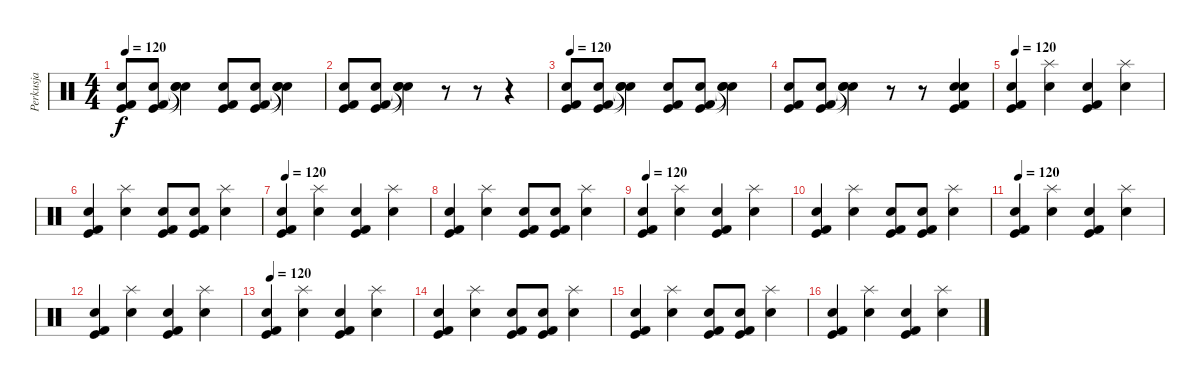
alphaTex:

\track ("Perkusja" "Perkusja") {instrument percussion}
\staff {score}
\articulation defaults
\ts (4 4)
\tempo 120
\clef neutral
\ks c
("Kick (hit)" "Kick (hit) 2" "Snare (hit) 2").8{dy f} ("Kick (hit)" "Kick (hit) 2" "Snare (hit) 2").8 ("Snare (hit)"{t} "Snare (hit)"{t} "Snare (hit)"{t}).4 ("Kick (hit)" "Kick (hit) 2" "Snare (hit) 2").8 ("Kick (hit)" "Kick (hit) 2" "Snare (hit) 2").8 ("Snare (hit)"{t} "Snare (hit)"{t} "Snare (hit)"{t}).4 |
("Kick (hit)" "Kick (hit) 2" "Snare (hit) 2").8 ("Kick (hit)" "Kick (hit) 2" "Snare (hit) 2").8 ("Snare (hit)"{t} "Snare (hit)"{t} "Snare (hit)"{t}).4 r.8 r.8 r.4 |
\tempo 120
("Kick (hit)" "Kick (hit) 2" "Snare (hit) 2").8 ("Kick (hit)" "Kick (hit) 2" "Snare (hit) 2").8 ("Snare (hit)"{t} "Snare (hit)"{t} "Snare (hit)"{t}).4 ("Kick (hit)" "Kick (hit) 2" "Snare (hit) 2").8 ("Kick (hit)" "Kick (hit) 2" "Snare (hit) 2").8 ("Snare (hit)"{t} "Snare (hit)"{t} "Snare (hit)"{t}).4 |
("Kick (hit)" "Kick (hit) 2" "Snare (hit) 2").8 ("Kick (hit)" "Kick (hit) 2" "Snare (hit) 2").8 ("Snare (hit)"{t} "Snare (hit)"{t} "Snare (hit)"{t}).4 r.8 r.8 ("Electric Snare (hit)" "Kick (hit) 2" "Kick (hit)" "Snare (hit) 2").4 |
\tempo 120
("Snare (hit) 2" "Kick (hit)" "Kick (hit) 2").4 ("Snare (hit) 2" "Splash (hit)").4 ("Snare (hit) 2" "Kick (hit)" "Kick (hit) 2").4 ("Snare (hit) 2" "Splash (hit)").4 |
("Snare (hit) 2" "Kick (hit)" "Kick (hit) 2").4 ("Snare (hit) 2" "Splash (hit)").4 ("Snare (hit) 2" "Kick (hit)" "Kick (hit) 2").8 ("Snare (hit) 2" "Kick (hit)" "Kick (hit) 2").8 ("Snare (hit) 2" "Splash (hit)").4 |
\tempo 120
("Snare (hit) 2" "Kick (hit)" "Kick (hit) 2").4 ("Snare (hit) 2" "Splash (hit)").4 ("Snare (hit) 2" "Kick (hit)" "Kick (hit) 2").4 ("Snare (hit) 2" "Splash (hit)").4 |
("Snare (hit) 2" "Kick (hit)" "Kick (hit) 2").4 ("Snare (hit) 2" "Splash (hit)").4 ("Snare (hit) 2" "Kick (hit)" "Kick (hit) 2").8 ("Snare (hit) 2" "Kick (hit)" "Kick (hit) 2").8 ("Snare (hit) 2" "Splash (hit)").4 |
\tempo 120
("Snare (hit) 2" "Kick (hit)" "Kick (hit) 2").4 ("Snare (hit) 2" "Splash (hit)").4 ("Snare (hit) 2" "Kick (hit)" "Kick (hit) 2").4 ("Snare (hit) 2" "Splash (hit)").4 |
("Snare (hit) 2" "Kick (hit)" "Kick (hit) 2").4 ("Snare (hit) 2" "Splash (hit)").4 ("Snare (hit) 2" "Kick (hit)" "Kick (hit) 2").8 ("Snare (hit) 2" "Kick (hit)" "Kick (hit) 2").8 ("Snare (hit) 2" "Splash (hit)").4 |
\tempo 120
("Snare (hit) 2" "Kick (hit)" "Kick (hit) 2").4 ("Snare (hit) 2" "Splash (hit)").4 ("Snare (hit) 2" "Kick (hit)" "Kick (hit) 2").4 ("Snare (hit) 2" "Splash (hit)").4 |
("Snare (hit) 2" "Kick (hit)" "Kick (hit) 2").4 ("Snare (hit) 2" "Splash (hit)").4 ("Snare (hit) 2" "Kick (hit)" "Kick (hit) 2").4 ("Snare (hit) 2" "Splash (hit)").4 |
\tempo 120
("Snare (hit) 2" "Kick (hit)" "Kick (hit) 2").4 ("Snare (hit) 2" "Splash (hit)").4 ("Snare (hit) 2" "Kick (hit)" "Kick (hit) 2").4 ("Snare (hit) 2" "Splash (hit)").4 |
("Snare (hit) 2" "Kick (hit)" "Kick (hit) 2").4 ("Snare (hit) 2" "Splash (hit)").4 ("Snare (hit) 2" "Kick (hit)" "Kick (hit) 2").8 ("Snare (hit) 2" "Kick (hit)" "Kick (hit) 2").8 ("Snare (hit) 2" "Splash (hit)").4 |
("Snare (hit) 2" "Kick (hit)" "Kick (hit) 2").4 ("Snare (hit) 2" "Splash (hit)").4 ("Snare (hit) 2" "Kick (hit)" "Kick (hit) 2").8 ("Snare (hit) 2" "Kick (hit)" "Kick (hit) 2").8 ("Snare (hit) 2" "Splash (hit)").4 |
("Snare (hit) 2" "Kick (hit)" "Kick (hit) 2").4 ("Snare (hit) 2" "Splash (hit)").4 ("Snare (hit) 2" "Kick (hit)" "Kick (hit) 2").4 ("Snare (hit) 2" "Splash (hit)").4
